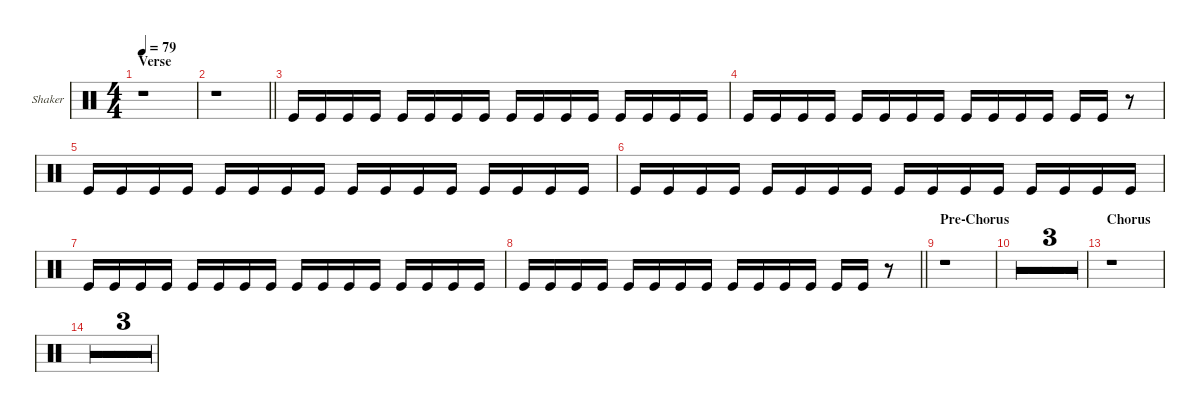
\defaultSystemsLayout 4
\hideDynamics
\bracketExtendMode groupsimilarinstruments
\firstSystemTrackNameOrientation horizontal
\otherSystemsTrackNameOrientation horizontal
\track ("Shaker" "Shaker") {multiBarRest instrument percussion}
\staff {score}
\articulation defaults
\ts (4 4)
\section ("" "Verse")
\tempo 79
\clef neutral
\ks c
r.1{dy mf} |
\barLineRight lightlight
r.1 |
"Kick (hit)".16 "Kick (hit)".16 "Kick (hit)".16 "Kick (hit)".16 "Kick (hit)".16 "Kick (hit)".16 "Kick (hit)".16 "Kick (hit)".16 "Kick (hit)".16 "Kick (hit)".16 "Kick (hit)".16 "Kick (hit)".16 "Kick (hit)".16 "Kick (hit)".16 "Kick (hit)".16 "Kick (hit)".16 |
"Kick (hit)".16 "Kick (hit)".16 "Kick (hit)".16 "Kick (hit)".16 "Kick (hit)".16 "Kick (hit)".16 "Kick (hit)".16 "Kick (hit)".16 "Kick (hit)".16 "Kick (hit)".16 "Kick (hit)".16 "Kick (hit)".16 "Kick (hit)".16 "Kick (hit)".16 r.8 |
"Kick (hit)".16 "Kick (hit)".16 "Kick (hit)".16 "Kick (hit)".16 "Kick (hit)".16 "Kick (hit)".16 "Kick (hit)".16 "Kick (hit)".16 "Kick (hit)".16 "Kick (hit)".16 "Kick (hit)".16 "Kick (hit)".16 "Kick (hit)".16 "Kick (hit)".16 "Kick (hit)".16 "Kick (hit)".16 |
"Kick (hit)".16 "Kick (hit)".16 "Kick (hit)".16 "Kick (hit)".16 "Kick (hit)".16 "Kick (hit)".16 "Kick (hit)".16 "Kick (hit)".16 "Kick (hit)".16 "Kick (hit)".16 "Kick (hit)".16 "Kick (hit)".16 "Kick (hit)".16 "Kick (hit)".16 "Kick (hit)".16 "Kick (hit)".16 |
"Kick (hit)".16 "Kick (hit)".16 "Kick (hit)".16 "Kick (hit)".16 "Kick (hit)".16 "Kick (hit)".16 "Kick (hit)".16 "Kick (hit)".16 "Kick (hit)".16 "Kick (hit)".16 "Kick (hit)".16 "Kick (hit)".16 "Kick (hit)".16 "Kick (hit)".16 "Kick (hit)".16 "Kick (hit)".16 |
\barLineRight lightlight "Kick (hit)".16 "Kick (hit)".16 "Kick (hit)".16 "Kick (hit)".16 "Kick (hit)".16 "Kick (hit)".16 "Kick (hit)".16 "Kick (hit)".16 "Kick (hit)".16 "Kick (hit)".16 "Kick (hit)".16 "Kick (hit)".16 "Kick (hit)".16 "Kick (hit)".16
r.8 |
\section ("" "Pre-Chorus")
r.1 |
r.1 |
r.1 |
r.1 |
\section ("" "Chorus")
r.1 |
r.1 |
r.1 |
r.1
